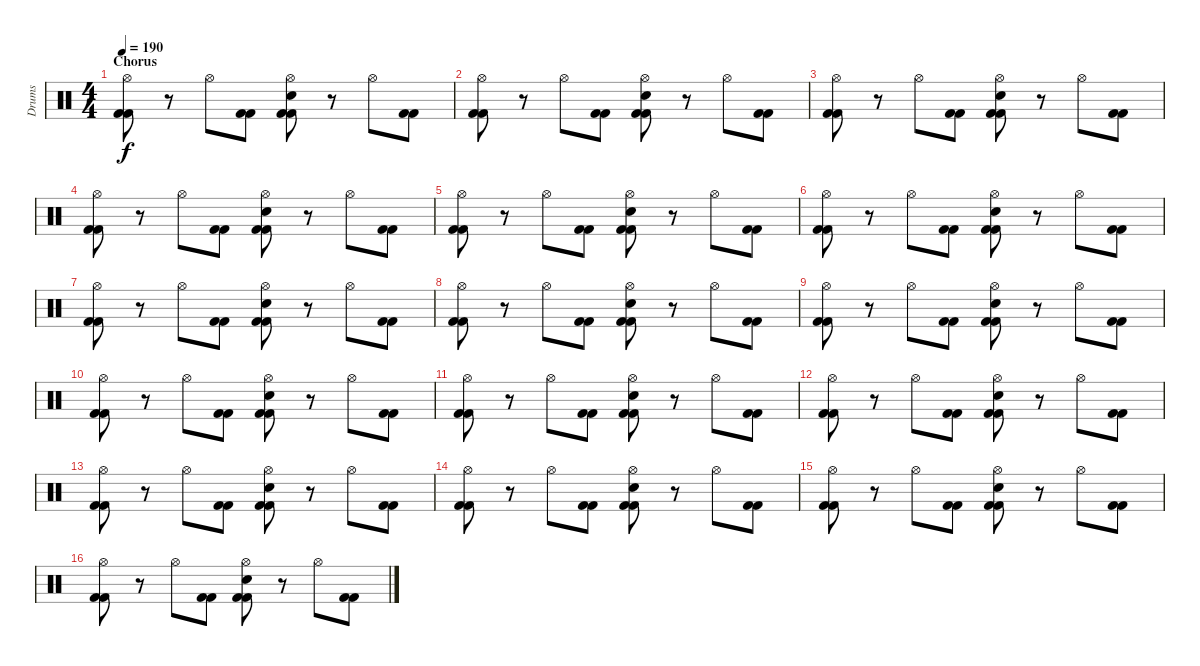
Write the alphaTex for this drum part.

\track ("Drums" "Drums") {instrument percussion}
\staff {score}
\articulation defaults
\ts (4 4)
\section ("" "Chorus")
\tempo 190
\clef neutral
\ks c
("Hi-Hat (open)" "Kick (hit) 2" "Kick (hit) 2").8{dy f} r.8 "Hi-Hat (open)".8 ("Kick (hit) 2" "Kick (hit) 2").8 ("Hi-Hat (open)" "Snare (hit) 2" "Kick (hit) 2" "Kick (hit) 2").8 r.8 "Hi-Hat (open)".8 ("Kick (hit) 2" "Kick (hit) 2").8 |
("Hi-Hat (open)" "Kick (hit) 2" "Kick (hit) 2").8 r.8 "Hi-Hat (open)".8 ("Kick (hit) 2" "Kick (hit) 2").8 ("Hi-Hat (open)" "Snare (hit) 2" "Kick (hit) 2" "Kick (hit) 2").8 r.8 "Hi-Hat (open)".8 ("Kick (hit) 2" "Kick (hit) 2").8 |
("Hi-Hat (open)" "Kick (hit) 2" "Kick (hit) 2").8 r.8 "Hi-Hat (open)".8 ("Kick (hit) 2" "Kick (hit) 2").8 ("Hi-Hat (open)" "Snare (hit) 2" "Kick (hit) 2" "Kick (hit) 2").8 r.8 "Hi-Hat (open)".8 ("Kick (hit) 2" "Kick (hit) 2").8 |
("Hi-Hat (open)" "Kick (hit) 2" "Kick (hit) 2").8 r.8 "Hi-Hat (open)".8 ("Kick (hit) 2" "Kick (hit) 2").8 ("Hi-Hat (open)" "Snare (hit) 2" "Kick (hit) 2" "Kick (hit) 2").8 r.8 "Hi-Hat (open)".8 ("Kick (hit) 2" "Kick (hit) 2").8 |
("Hi-Hat (open)" "Kick (hit) 2" "Kick (hit) 2").8 r.8 "Hi-Hat (open)".8 ("Kick (hit) 2" "Kick (hit) 2").8 ("Hi-Hat (open)" "Snare (hit) 2" "Kick (hit) 2" "Kick (hit) 2").8 r.8 "Hi-Hat (open)".8 ("Kick (hit) 2" "Kick (hit) 2").8 |
("Hi-Hat (open)" "Kick (hit) 2" "Kick (hit) 2").8 r.8 "Hi-Hat (open)".8 ("Kick (hit) 2" "Kick (hit) 2").8 ("Hi-Hat (open)" "Snare (hit) 2" "Kick (hit) 2" "Kick (hit) 2").8 r.8 "Hi-Hat (open)".8 ("Kick (hit) 2" "Kick (hit) 2").8 |
("Hi-Hat (open)" "Kick (hit) 2" "Kick (hit) 2").8 r.8 "Hi-Hat (open)".8 ("Kick (hit) 2" "Kick (hit) 2").8 ("Hi-Hat (open)" "Snare (hit) 2" "Kick (hit) 2" "Kick (hit) 2").8 r.8 "Hi-Hat (open)".8 ("Kick (hit) 2" "Kick (hit) 2").8 |
("Hi-Hat (open)" "Kick (hit) 2" "Kick (hit) 2").8 r.8 "Hi-Hat (open)".8 ("Kick (hit) 2" "Kick (hit) 2").8 ("Hi-Hat (open)" "Snare (hit) 2" "Kick (hit) 2" "Kick (hit) 2").8 r.8 "Hi-Hat (open)".8 ("Kick (hit) 2" "Kick (hit) 2").8 |
("Hi-Hat (open)" "Kick (hit) 2" "Kick (hit) 2").8 r.8 "Hi-Hat (open)".8 ("Kick (hit) 2" "Kick (hit) 2").8 ("Hi-Hat (open)" "Snare (hit) 2" "Kick (hit) 2" "Kick (hit) 2").8 r.8 "Hi-Hat (open)".8 ("Kick (hit) 2" "Kick (hit) 2").8 |
("Hi-Hat (open)" "Kick (hit) 2" "Kick (hit) 2").8 r.8 "Hi-Hat (open)".8 ("Kick (hit) 2" "Kick (hit) 2").8 ("Hi-Hat (open)" "Snare (hit) 2" "Kick (hit) 2" "Kick (hit) 2").8 r.8 "Hi-Hat (open)".8 ("Kick (hit) 2" "Kick (hit) 2").8 |
("Hi-Hat (open)" "Kick (hit) 2" "Kick (hit) 2").8 r.8 "Hi-Hat (open)".8 ("Kick (hit) 2" "Kick (hit) 2").8 ("Hi-Hat (open)" "Snare (hit) 2" "Kick (hit) 2" "Kick (hit) 2").8 r.8 "Hi-Hat (open)".8 ("Kick (hit) 2" "Kick (hit) 2").8 |
("Hi-Hat (open)" "Kick (hit) 2" "Kick (hit) 2").8 r.8 "Hi-Hat (open)".8 ("Kick (hit) 2" "Kick (hit) 2").8 ("Hi-Hat (open)" "Snare (hit) 2" "Kick (hit) 2" "Kick (hit) 2").8 r.8 "Hi-Hat (open)".8 ("Kick (hit) 2" "Kick (hit) 2").8 |
("Hi-Hat (open)" "Kick (hit) 2" "Kick (hit) 2").8 r.8 "Hi-Hat (open)".8 ("Kick (hit) 2" "Kick (hit) 2").8 ("Hi-Hat (open)" "Snare (hit) 2" "Kick (hit) 2" "Kick (hit) 2").8 r.8 "Hi-Hat (open)".8 ("Kick (hit) 2" "Kick (hit) 2").8 |
("Hi-Hat (open)" "Kick (hit) 2" "Kick (hit) 2").8 r.8 "Hi-Hat (open)".8 ("Kick (hit) 2" "Kick (hit) 2").8 ("Hi-Hat (open)" "Snare (hit) 2" "Kick (hit) 2" "Kick (hit) 2").8 r.8 "Hi-Hat (open)".8 ("Kick (hit) 2" "Kick (hit) 2").8 |
("Hi-Hat (open)" "Kick (hit) 2" "Kick (hit) 2").8 r.8 "Hi-Hat (open)".8 ("Kick (hit) 2" "Kick (hit) 2").8 ("Hi-Hat (open)" "Snare (hit) 2" "Kick (hit) 2" "Kick (hit) 2").8 r.8 "Hi-Hat (open)".8 ("Kick (hit) 2" "Kick (hit) 2").8 |
("Hi-Hat (open)" "Kick (hit) 2" "Kick (hit) 2").8 r.8 "Hi-Hat (open)".8 ("Kick (hit) 2" "Kick (hit) 2").8 ("Hi-Hat (open)" "Snare (hit) 2" "Kick (hit) 2" "Kick (hit) 2").8 r.8 "Hi-Hat (open)".8 ("Kick (hit) 2" "Kick (hit) 2").8
